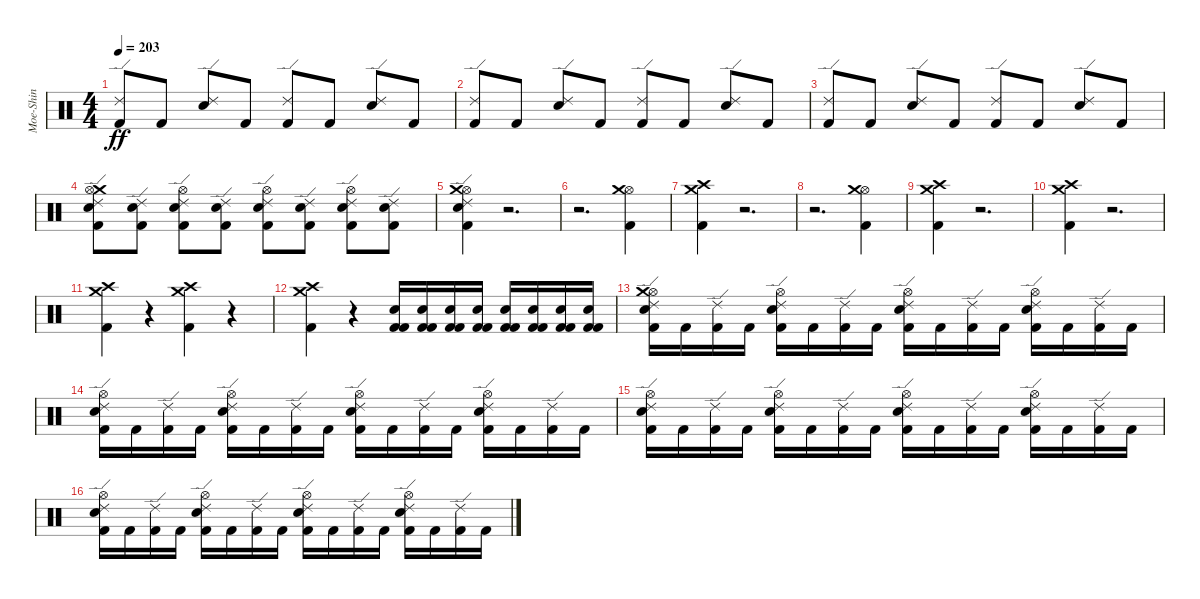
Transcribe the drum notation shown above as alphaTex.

\track ("Moe-Shin" "Moe-Shin") {instrument percussion}
\staff {score}
\articulation defaults
\ts (4 4)
\tempo 203
\clef neutral
\ks c
("Kick (hit) 2" "Ride (edge) 2").8{dy ff} "Kick (hit) 2".8 ("Snare (hit) 2" "Ride (edge) 2").8 "Kick (hit) 2".8 ("Ride (edge) 2" "Kick (hit) 2").8 "Kick (hit) 2".8 ("Ride (edge) 2" "Snare (hit) 2").8 "Kick (hit) 2".8 |
("Ride (edge) 2" "Kick (hit) 2").8 "Kick (hit) 2".8 ("Ride (edge) 2" "Snare (hit) 2").8 "Kick (hit) 2".8 ("Ride (edge) 2" "Kick (hit) 2").8 "Kick (hit) 2".8 ("Snare (hit) 2" "Ride (edge) 2").8 "Kick (hit) 2".8 |
("Ride (edge) 2" "Kick (hit) 2").8 "Kick (hit) 2".8 ("Ride (edge) 2" "Snare (hit) 2").8 "Kick (hit) 2".8 ("Kick (hit) 2" "Ride (edge) 2").8 "Kick (hit) 2".8 ("Snare (hit) 2" "Ride (edge) 2").8 "Kick (hit) 2".8 |
("Crash medium (hit)" "Snare (hit) 2" "Kick (hit) 2" "Ride (edge) 2" "Hi-Hat (open)").8 ("Ride (edge) 2" "Kick (hit) 2" "Snare (hit) 2").8 ("Ride (edge) 2" "Snare (hit) 2" "Kick (hit) 2" "Hi-Hat (open)").8 ("Kick (hit) 2" "Snare (hit) 2" "Ride (edge) 2").8 ("Ride (edge) 2" "Hi-Hat (open)" "Snare (hit) 2" "Kick (hit) 2").8 ("Ride (edge) 2" "Snare (hit) 2" "Kick (hit) 2").8 ("Ride (edge) 2" "Snare (hit) 2" "Kick (hit) 2" "Hi-Hat (open)").8 ("Ride (edge) 2" "Kick (hit) 2" "Snare (hit) 2").8 |
("Hi-Hat (open)" "Snare (hit) 2" "Crash medium (hit)" "Ride (edge) 2" "Kick (hit) 2").4 r.2{d} |
r.2{d} ("Hi-Hat (open)" "Crash medium (hit)" "Kick (hit) 2").4 |
("Crash medium (hit)" "Crash high (hit)" "Kick (hit) 2").4 r.2{d} |
r.2{d} ("Hi-Hat (open)" "Crash medium (hit)" "Kick (hit) 2").4 |
("Kick (hit) 2" "Crash medium (hit)" "Crash high (hit)").4 r.2{d} |
("Crash medium (hit)" "Kick (hit) 2" "Crash high (hit)").4 r.2{d} |
("Kick (hit) 2" "Crash medium (hit)" "Crash high (hit)").4 r.4 ("Crash high (hit)" "Crash medium (hit)" "Kick (hit) 2").4 r.4 |
("Crash medium (hit)" "Kick (hit) 2" "Crash high (hit)").4 r.4 ("Snare (hit) 2" "Kick (hit) 2" "Kick (hit) 2").16 ("Snare (hit) 2" "Kick (hit) 2" "Kick (hit) 2").16 ("Snare (hit) 2" "Kick (hit) 2" "Kick (hit) 2").16 ("Snare (hit) 2" "Kick (hit) 2" "Kick (hit) 2").16 ("Snare (hit) 2" "Kick (hit) 2" "Kick (hit) 2").16 ("Snare (hit) 2" "Kick (hit) 2" "Kick (hit) 2").16 ("Kick (hit) 2" "Snare (hit) 2" "Kick (hit) 2").16 ("Snare (hit) 2" "Kick (hit) 2" "Kick (hit) 2").16 |
("Snare (hit) 2" "Hi-Hat (open)" "Kick (hit) 2" "Crash medium (hit)" "Ride (edge) 2").16 "Kick (hit) 2".16 ("Kick (hit) 2" "Ride (edge) 2").16 "Kick (hit) 2".16 ("Snare (hit) 2" "Ride (edge) 2" "Kick (hit) 2" "Hi-Hat (open)").16 "Kick (hit) 2".16 ("Kick (hit) 2" "Ride (edge) 2").16 "Kick (hit) 2".16 ("Kick (hit) 2" "Ride (edge) 2" "Hi-Hat (open)" "Snare (hit) 2").16 "Kick (hit) 2".16 ("Kick (hit) 2" "Ride (edge) 2").16 "Kick (hit) 2".16 ("Snare (hit) 2" "Kick (hit) 2" "Hi-Hat (open)" "Ride (edge) 2").16 "Kick (hit) 2".16 ("Kick (hit) 2" "Ride (edge) 2").16 "Kick (hit) 2".16 |
("Ride (edge) 2" "Snare (hit) 2" "Kick (hit) 2" "Hi-Hat (open)").16 "Kick (hit) 2".16 ("Ride (edge) 2" "Kick (hit) 2").16 "Kick (hit) 2".16 ("Snare (hit) 2" "Kick (hit) 2" "Ride (edge) 2" "Hi-Hat (open)").16 "Kick (hit) 2".16 ("Kick (hit) 2" "Ride (edge) 2").16 "Kick (hit) 2".16 ("Ride (edge) 2" "Hi-Hat (open)" "Kick (hit) 2" "Snare (hit) 2").16 "Kick (hit) 2".16 ("Kick (hit) 2" "Ride (edge) 2").16 "Kick (hit) 2".16 ("Ride (edge) 2" "Snare (hit) 2" "Hi-Hat (open)" "Kick (hit) 2").16 "Kick (hit) 2".16 ("Ride (edge) 2" "Kick (hit) 2").16 "Kick (hit) 2".16 |
("Kick (hit) 2" "Hi-Hat (open)" "Snare (hit) 2" "Ride (edge) 2").16 "Kick (hit) 2".16 ("Kick (hit) 2" "Ride (edge) 2").16 "Kick (hit) 2".16 ("Ride (edge) 2" "Hi-Hat (open)" "Snare (hit) 2" "Kick (hit) 2").16 "Kick (hit) 2".16 ("Kick (hit) 2" "Ride (edge) 2").16 "Kick (hit) 2".16 ("Ride (edge) 2" "Kick (hit) 2" "Hi-Hat (open)" "Snare (hit) 2").16 "Kick (hit) 2".16 ("Ride (edge) 2" "Kick (hit) 2").16 "Kick (hit) 2".16 ("Kick (hit) 2" "Hi-Hat (open)" "Snare (hit) 2" "Ride (edge) 2").16 "Kick (hit) 2".16 ("Ride (edge) 2" "Kick (hit) 2").16 "Kick (hit) 2".16 |
("Kick (hit) 2" "Ride (edge) 2" "Snare (hit) 2" "Hi-Hat (open)").16 "Kick (hit) 2".16 ("Kick (hit) 2" "Ride (edge) 2").16 "Kick (hit) 2".16 ("Hi-Hat (open)" "Ride (edge) 2" "Kick (hit) 2" "Snare (hit) 2").16 "Kick (hit) 2".16 ("Ride (edge) 2" "Kick (hit) 2").16 "Kick (hit) 2".16 ("Hi-Hat (open)" "Ride (edge) 2" "Kick (hit) 2" "Snare (hit) 2").16 "Kick (hit) 2".16 ("Kick (hit) 2" "Ride (edge) 2").16 "Kick (hit) 2".16 ("Kick (hit) 2" "Snare (hit) 2" "Hi-Hat (open)" "Ride (edge) 2").16 "Kick (hit) 2".16 ("Kick (hit) 2" "Ride (edge) 2").16 "Kick (hit) 2".16
